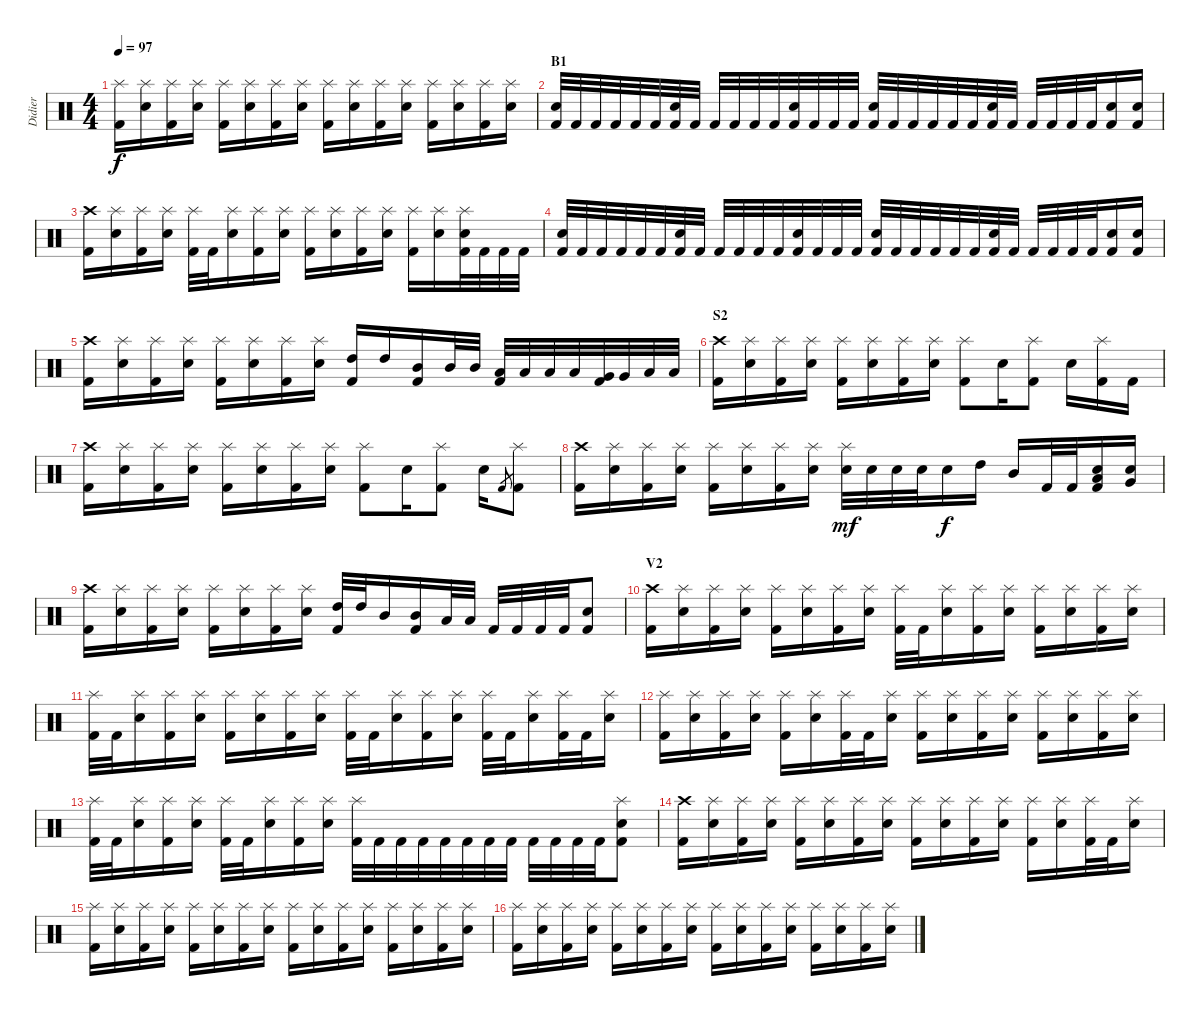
\track ("Didier" "Didier") {instrument percussion}
\staff {score}
\articulation defaults
\ts (4 4)
\tempo 97
\clef neutral
\ks c
("Splash (hit)" "Kick (hit) 2").16{dy f} ("Splash (hit)" "Snare (hit) 2").16 ("Splash (hit)" "Kick (hit) 2").16 ("Splash (hit)" "Snare (hit) 2").16 ("Splash (hit)" "Kick (hit) 2").16 ("Splash (hit)" "Snare (hit) 2").16 ("Splash (hit)" "Kick (hit) 2").16 ("Splash (hit)" "Snare (hit) 2").16 ("Splash (hit)" "Kick (hit) 2").16 ("Splash (hit)" "Snare (hit) 2").16 ("Splash (hit)" "Kick (hit) 2").16 ("Splash (hit)" "Snare (hit) 2").16 ("Splash (hit)" "Kick (hit) 2").16 ("Splash (hit)" "Snare (hit) 2").16 ("Splash (hit)" "Kick (hit) 2").16 ("Splash (hit)" "Snare (hit) 2").16 |
\section ("" "B1")
("Snare (hit) 2" "Kick (hit) 2").32 "Kick (hit) 2".32 "Kick (hit) 2".32 "Kick (hit) 2".32 "Kick (hit) 2".32 "Kick (hit) 2".32 ("Snare (hit) 2" "Kick (hit) 2").32 "Kick (hit) 2".32 "Kick (hit) 2".32 "Kick (hit) 2".32 "Kick (hit) 2".32 "Kick (hit) 2".32 ("Snare (hit) 2" "Kick (hit) 2").32 "Kick (hit) 2".32 "Kick (hit) 2".32 "Kick (hit) 2".32 ("Snare (hit) 2" "Kick (hit) 2").32 "Kick (hit) 2".32 "Kick (hit) 2".32 "Kick (hit) 2".32 "Kick (hit) 2".32 "Kick (hit) 2".32 ("Snare (hit) 2" "Kick (hit) 2").32 "Kick (hit) 2".32 "Kick (hit) 2".32 "Kick (hit) 2".32 "Kick (hit) 2".32 "Kick (hit) 2".32 ("Snare (hit) 2" "Kick (hit) 2").16 ("Snare (hit) 2" "Kick (hit) 2").16 |
("Crash high (hit)" "Kick (hit) 2").16 ("Splash (hit)" "Snare (hit) 2").16 ("Splash (hit)" "Kick (hit) 2").16 ("Splash (hit)" "Snare (hit) 2").16 ("Splash (hit)" "Kick (hit) 2").32 "Kick (hit) 2".32 ("Splash (hit)" "Snare (hit) 2").16 ("Splash (hit)" "Kick (hit) 2").16 ("Splash (hit)" "Snare (hit) 2").16 ("Splash (hit)" "Kick (hit) 2").16 ("Splash (hit)" "Snare (hit) 2").16 ("Splash (hit)" "Kick (hit) 2").16 ("Splash (hit)" "Snare (hit) 2").16 ("Splash (hit)" "Kick (hit) 2").16 ("Splash (hit)" "Snare (hit) 2").16 ("Splash (hit)" "Snare (hit) 2" "Kick (hit) 2").32 "Kick (hit) 2".32 "Kick (hit) 2".32 "Kick (hit) 2".32 |
("Snare (hit) 2" "Kick (hit) 2").32 "Kick (hit) 2".32 "Kick (hit) 2".32 "Kick (hit) 2".32 "Kick (hit) 2".32 "Kick (hit) 2".32 ("Snare (hit) 2" "Kick (hit) 2").32 "Kick (hit) 2".32 "Kick (hit) 2".32 "Kick (hit) 2".32 "Kick (hit) 2".32 "Kick (hit) 2".32 ("Snare (hit) 2" "Kick (hit) 2").32 "Kick (hit) 2".32 "Kick (hit) 2".32 "Kick (hit) 2".32 ("Snare (hit) 2" "Kick (hit) 2").32 "Kick (hit) 2".32 "Kick (hit) 2".32 "Kick (hit) 2".32 "Kick (hit) 2".32 "Kick (hit) 2".32 ("Snare (hit) 2" "Kick (hit) 2").32 "Kick (hit) 2".32 "Kick (hit) 2".32 "Kick (hit) 2".32 "Kick (hit) 2".32 "Kick (hit) 2".32 ("Snare (hit) 2" "Kick (hit) 2").16 ("Snare (hit) 2" "Kick (hit) 2").16 |
("Crash high (hit)" "Kick (hit) 2").16 ("Splash (hit)" "Snare (hit) 2").16 ("Splash (hit)" "Kick (hit) 2").16 ("Splash (hit)" "Snare (hit) 2").16 ("Splash (hit)" "Kick (hit) 2").16 ("Splash (hit)" "Snare (hit) 2").16 ("Splash (hit)" "Kick (hit) 2").16 ("Splash (hit)" "Snare (hit) 2").16 ("High Tom (hit)" "Kick (hit) 2").16 "High Tom (hit)".16 ("Mid Tom (hit)" "Kick (hit) 2").16 "Mid Tom (hit)".32 "Mid Tom (hit)".32 ("Low Tom (hit)" "Kick (hit) 2").32 "Low Tom (hit)".32 "Low Tom (hit)".32 "Low Tom (hit)".32 ("Very Low Tom (hit)" "Kick (hit) 2").32 "Very Low Tom (hit)".32 "Low Floor Tom (hit)".32 "Low Floor Tom (hit)".32 |
\section ("" "S2")
("Crash high (hit)" "Kick (hit) 2").16 ("Splash (hit)" "Snare (hit) 2").16 ("Splash (hit)" "Kick (hit) 2").16 ("Splash (hit)" "Snare (hit) 2").16 ("Splash (hit)" "Kick (hit) 2").16 ("Splash (hit)" "Snare (hit) 2").16 ("Splash (hit)" "Kick (hit) 2").16 ("Splash (hit)" "Snare (hit) 2").16 ("Splash (hit)" "Kick (hit) 2").8 "Snare (hit) 2".16 ("Splash (hit)" "Kick (hit) 2").8 "Snare (hit) 2".16 ("Splash (hit)" "Kick (hit) 2").16 "Kick (hit) 2".16 |
("Crash high (hit)" "Kick (hit) 2").16 ("Splash (hit)" "Snare (hit) 2").16 ("Splash (hit)" "Kick (hit) 2").16 ("Splash (hit)" "Snare (hit) 2").16 ("Splash (hit)" "Kick (hit) 2").16 ("Splash (hit)" "Snare (hit) 2").16 ("Splash (hit)" "Kick (hit) 2").16 ("Splash (hit)" "Snare (hit) 2").16 ("Splash (hit)" "Kick (hit) 2").8 "Snare (hit) 2".16 ("Splash (hit)" "Kick (hit) 2").8 "Snare (hit) 2".16 "Kick (hit) 2".8{gr} ("Splash (hit)" "Kick (hit) 2").8 |
("Crash high (hit)" "Kick (hit) 2").16 ("Splash (hit)" "Snare (hit) 2").16 ("Splash (hit)" "Kick (hit) 2").16 ("Splash (hit)" "Snare (hit) 2").16 ("Splash (hit)" "Kick (hit) 2").16 ("Splash (hit)" "Snare (hit) 2").16 ("Splash (hit)" "Kick (hit) 2").16 ("Splash (hit)" "Snare (hit) 2").16 ("Splash (hit)" "Snare (hit) 2").32{dy mf} "Snare (hit) 2".32 "Snare (hit) 2".32 "Snare (hit) 2".32 "Snare (hit) 2".16{dy f} "High Tom (hit)".16 "Mid Tom (hit)".16 "Kick (hit) 2".32 "Kick (hit) 2".32 ("Snare (hit) 2" "Low Tom (hit)" "Kick (hit) 2").16 ("Snare (hit) 2" "Very Low Tom (hit)").16 |
("Crash high (hit)" "Kick (hit) 2").16 ("Splash (hit)" "Snare (hit) 2").16 ("Splash (hit)" "Kick (hit) 2").16 ("Splash (hit)" "Snare (hit) 2").16 ("Splash (hit)" "Kick (hit) 2").16 ("Splash (hit)" "Snare (hit) 2").16 ("Splash (hit)" "Kick (hit) 2").16 ("Splash (hit)" "Snare (hit) 2").16 ("High Tom (hit)" "Kick (hit) 2").32 "High Tom (hit)".32 "Mid Tom (hit)".16 ("Mid Tom (hit)" "Kick (hit) 2").16 "Low Tom (hit)".32 "Low Tom (hit)".32 "Kick (hit) 2".32 "Kick (hit) 2".32 "Kick (hit) 2".32 "Kick (hit) 2".32 ("Snare (hit) 2" "Kick (hit) 2").8 |
\section ("" "V2")
("Crash high (hit)" "Kick (hit) 2").16 ("Splash (hit)" "Snare (hit) 2").16 ("Splash (hit)" "Kick (hit) 2").16 ("Splash (hit)" "Snare (hit) 2").16 ("Splash (hit)" "Kick (hit) 2").16 ("Splash (hit)" "Snare (hit) 2").16 ("Splash (hit)" "Kick (hit) 2").16 ("Splash (hit)" "Snare (hit) 2").16 ("Splash (hit)" "Kick (hit) 2").32 "Kick (hit) 2".32 ("Splash (hit)" "Snare (hit) 2").16 ("Splash (hit)" "Kick (hit) 2").16 ("Splash (hit)" "Snare (hit) 2").16 ("Splash (hit)" "Kick (hit) 2").16 ("Splash (hit)" "Snare (hit) 2").16 ("Splash (hit)" "Kick (hit) 2").16 ("Splash (hit)" "Snare (hit) 2").16 |
("Splash (hit)" "Kick (hit) 2").32 "Kick (hit) 2".32 ("Splash (hit)" "Snare (hit) 2").16 ("Splash (hit)" "Kick (hit) 2").16 ("Splash (hit)" "Snare (hit) 2").16 ("Splash (hit)" "Kick (hit) 2").16 ("Splash (hit)" "Snare (hit) 2").16 ("Splash (hit)" "Kick (hit) 2").16 ("Splash (hit)" "Snare (hit) 2").16 ("Splash (hit)" "Kick (hit) 2").32 "Kick (hit) 2".32 ("Splash (hit)" "Snare (hit) 2").16 ("Splash (hit)" "Kick (hit) 2").16 ("Splash (hit)" "Snare (hit) 2").16 ("Splash (hit)" "Kick (hit) 2").32 "Kick (hit) 2".32 ("Splash (hit)" "Snare (hit) 2").16 ("Splash (hit)" "Kick (hit) 2").32 "Kick (hit) 2".32 ("Splash (hit)" "Snare (hit) 2").16 |
("Splash (hit)" "Kick (hit) 2").16 ("Splash (hit)" "Snare (hit) 2").16 ("Splash (hit)" "Kick (hit) 2").16 ("Splash (hit)" "Snare (hit) 2").16 ("Splash (hit)" "Kick (hit) 2").16 ("Splash (hit)" "Snare (hit) 2").16 ("Splash (hit)" "Kick (hit) 2").32 "Kick (hit) 2".32 ("Splash (hit)" "Snare (hit) 2").16 ("Splash (hit)" "Kick (hit) 2").16 ("Splash (hit)" "Snare (hit) 2").16 ("Splash (hit)" "Kick (hit) 2").16 ("Splash (hit)" "Snare (hit) 2").16 ("Splash (hit)" "Kick (hit) 2").16 ("Splash (hit)" "Snare (hit) 2").16 ("Splash (hit)" "Kick (hit) 2").16 ("Splash (hit)" "Snare (hit) 2").16 |
("Splash (hit)" "Kick (hit) 2").32 "Kick (hit) 2".32 ("Splash (hit)" "Snare (hit) 2").16 ("Splash (hit)" "Kick (hit) 2").16 ("Splash (hit)" "Snare (hit) 2").16 ("Splash (hit)" "Kick (hit) 2").32 "Kick (hit) 2".32 ("Splash (hit)" "Snare (hit) 2").16 ("Splash (hit)" "Kick (hit) 2").16 ("Splash (hit)" "Snare (hit) 2").16 ("Splash (hit)" "Kick (hit) 2").32 "Kick (hit) 2".32 "Kick (hit) 2".32 "Kick (hit) 2".32 "Kick (hit) 2".32 "Kick (hit) 2".32 "Kick (hit) 2".32 "Kick (hit) 2".32 "Kick (hit) 2".32 "Kick (hit) 2".32 "Kick (hit) 2".32 "Kick (hit) 2".32 ("Splash (hit)" "Snare (hit) 2" "Kick (hit) 2").8 |
("Crash high (hit)" "Kick (hit) 2").16 ("Splash (hit)" "Snare (hit) 2").16 ("Splash (hit)" "Kick (hit) 2").16 ("Splash (hit)" "Snare (hit) 2").16 ("Splash (hit)" "Kick (hit) 2").16 ("Splash (hit)" "Snare (hit) 2").16 ("Splash (hit)" "Kick (hit) 2").16 ("Splash (hit)" "Snare (hit) 2").16 ("Splash (hit)" "Kick (hit) 2").16 ("Splash (hit)" "Snare (hit) 2").16 ("Splash (hit)" "Kick (hit) 2").16 ("Splash (hit)" "Snare (hit) 2").16 ("Splash (hit)" "Kick (hit) 2").16 ("Splash (hit)" "Snare (hit) 2").16 ("Splash (hit)" "Kick (hit) 2").32 "Kick (hit) 2".32 ("Splash (hit)" "Snare (hit) 2").16 |
("Splash (hit)" "Kick (hit) 2").16 ("Splash (hit)" "Snare (hit) 2").16 ("Splash (hit)" "Kick (hit) 2").16 ("Splash (hit)" "Snare (hit) 2").16 ("Splash (hit)" "Kick (hit) 2").16 ("Splash (hit)" "Snare (hit) 2").16 ("Splash (hit)" "Kick (hit) 2").16 ("Splash (hit)" "Snare (hit) 2").16 ("Splash (hit)" "Kick (hit) 2").16 ("Splash (hit)" "Snare (hit) 2").16 ("Splash (hit)" "Kick (hit) 2").16 ("Splash (hit)" "Snare (hit) 2").16 ("Splash (hit)" "Kick (hit) 2").16 ("Splash (hit)" "Snare (hit) 2").16 ("Splash (hit)" "Kick (hit) 2").16 ("Splash (hit)" "Snare (hit) 2").16 |
("Splash (hit)" "Kick (hit) 2").16 ("Splash (hit)" "Snare (hit) 2").16 ("Splash (hit)" "Kick (hit) 2").16 ("Splash (hit)" "Snare (hit) 2").16 ("Splash (hit)" "Kick (hit) 2").16 ("Splash (hit)" "Snare (hit) 2").16 ("Splash (hit)" "Kick (hit) 2").16 ("Splash (hit)" "Snare (hit) 2").16 ("Splash (hit)" "Kick (hit) 2").16 ("Splash (hit)" "Snare (hit) 2").16 ("Splash (hit)" "Kick (hit) 2").16 ("Splash (hit)" "Snare (hit) 2").16 ("Splash (hit)" "Kick (hit) 2").16 ("Splash (hit)" "Snare (hit) 2").16 ("Splash (hit)" "Kick (hit) 2").16 ("Splash (hit)" "Snare (hit) 2").16
